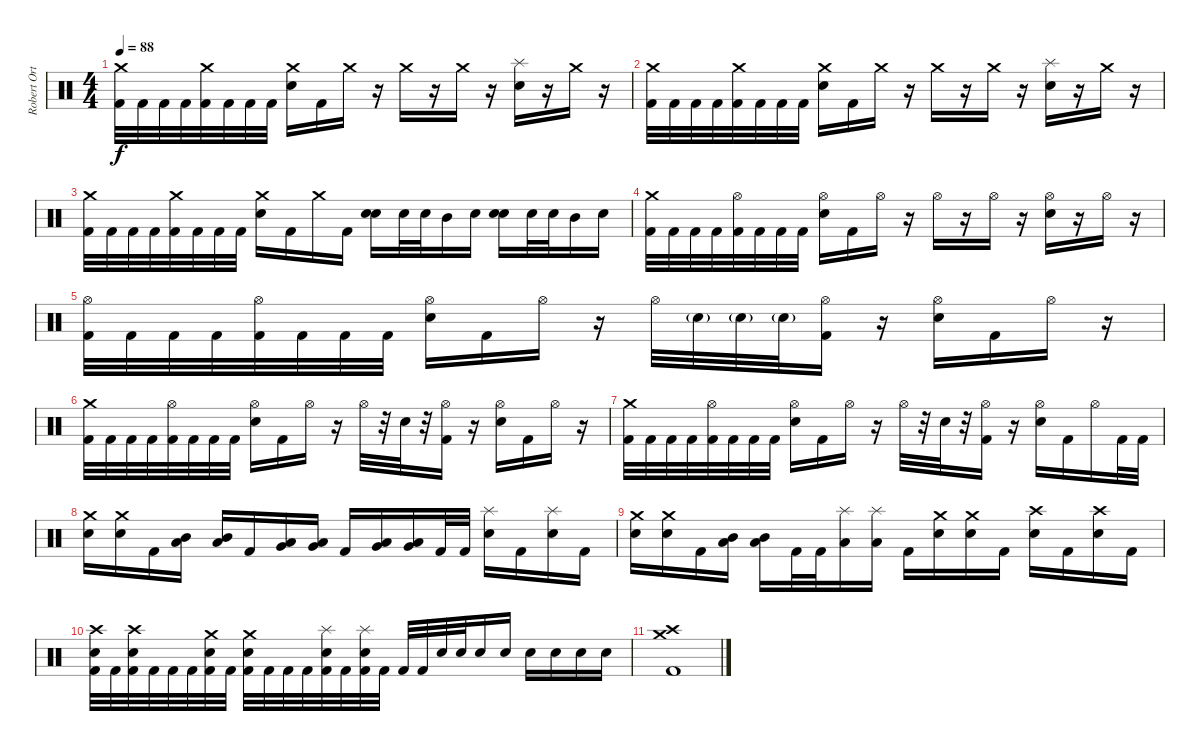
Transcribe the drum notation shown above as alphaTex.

\track ("Robert Ortiz" "Robert Ort") {instrument percussion}
\staff {score}
\articulation defaults
\ts (4 4)
\tempo 88
\clef neutral
\ks c
("Kick (hit) 2" "Crash medium (hit)").32{dy f} "Kick (hit) 2".32 "Kick (hit) 2".32 "Kick (hit) 2".32 ("Kick (hit) 2" "Crash medium (hit)").32 "Kick (hit) 2".32 "Kick (hit) 2".32 "Kick (hit) 2".32 ("Electric Snare (hit)" "Crash medium (hit)").16 "Kick (hit) 2".16 "Crash medium (hit)".16 r.16 "Crash medium (hit)".16 r.16 "Crash medium (hit)".16 r.16 ("Electric Snare (hit)" "Splash (hit)").16 r.16 "Crash medium (hit)".16 r.16 |
("Kick (hit) 2" "Crash medium (hit)").32 "Kick (hit) 2".32 "Kick (hit) 2".32 "Kick (hit) 2".32 ("Kick (hit) 2" "Crash medium (hit)").32 "Kick (hit) 2".32 "Kick (hit) 2".32 "Kick (hit) 2".32 ("Electric Snare (hit)" "Crash medium (hit)").16 "Kick (hit) 2".16 "Crash medium (hit)".16 r.16 "Crash medium (hit)".16 r.16 "Crash medium (hit)".16 r.16 ("Electric Snare (hit)" "Splash (hit)").16 r.16 "Crash medium (hit)".16 r.16 |
("Kick (hit) 2" "Crash medium (hit)").32 "Kick (hit) 2".32 "Kick (hit) 2".32 "Kick (hit) 2".32 ("Kick (hit) 2" "Crash medium (hit)").32 "Kick (hit) 2".32 "Kick (hit) 2".32 "Kick (hit) 2".32 ("Electric Snare (hit)" "Crash medium (hit)").16 "Kick (hit) 2".16 "Crash medium (hit)".16 "Kick (hit) 2".16 ("Electric Snare (hit)" "Electric Snare (hit)").16{bd 240} "Electric Snare (hit)".32 "Electric Snare (hit)".32 "Mid Tom (hit)".16 "Electric Snare (hit)".16 ("Electric Snare (hit)" "Electric Snare (hit)").16{bd 240} "Electric Snare (hit)".32 "Electric Snare (hit)".32 "Mid Tom (hit)".16 "Electric Snare (hit)".16 |
("Kick (hit) 2" "Crash medium (hit)").32 "Kick (hit) 2".32 "Kick (hit) 2".32 "Kick (hit) 2".32 ("Kick (hit) 2" "Hi-Hat (open)").32 "Kick (hit) 2".32 "Kick (hit) 2".32 "Kick (hit) 2".32 ("Electric Snare (hit)" "Hi-Hat (open)").16 "Kick (hit) 2".16 "Hi-Hat (open)".16 r.16 "Hi-Hat (open)".16 r.16 "Hi-Hat (open)".16 r.16 ("Electric Snare (hit)" "Hi-Hat (open)").16 r.16 "Hi-Hat (open)".16 r.16 |
("Kick (hit) 2" "Hi-Hat (open)").32 "Kick (hit) 2".32 "Kick (hit) 2".32 "Kick (hit) 2".32 ("Kick (hit) 2" "Hi-Hat (open)").32 "Kick (hit) 2".32 "Kick (hit) 2".32 "Kick (hit) 2".32 ("Electric Snare (hit)" "Hi-Hat (open)").16 "Kick (hit) 2".16 "Hi-Hat (open)".16 r.16 "Hi-Hat (open)".32 "Electric Snare (hit)"{g}.32 "Electric Snare (hit)"{g}.32 "Electric Snare (hit)"{g}.32 ("Kick (hit) 2" "Hi-Hat (open)").16 r.16 ("Electric Snare (hit)" "Hi-Hat (open)").16 "Kick (hit) 2".16 "Hi-Hat (open)".16 r.16 |
("Kick (hit) 2" "Crash medium (hit)").32 "Kick (hit) 2".32 "Kick (hit) 2".32 "Kick (hit) 2".32 ("Kick (hit) 2" "Hi-Hat (open)").32 "Kick (hit) 2".32 "Kick (hit) 2".32 "Kick (hit) 2".32 ("Electric Snare (hit)" "Hi-Hat (open)").16 "Kick (hit) 2".16 "Hi-Hat (open)".16 r.16 "Hi-Hat (open)".32 r.32 "Electric Snare (hit)".32 r.32 ("Kick (hit) 2" "Hi-Hat (open)").16 r.16 ("Electric Snare (hit)" "Hi-Hat (open)").16 "Kick (hit) 2".16 "Hi-Hat (open)".16 r.16 |
("Kick (hit) 2" "Crash medium (hit)").32 "Kick (hit) 2".32 "Kick (hit) 2".32 "Kick (hit) 2".32 ("Kick (hit) 2" "Hi-Hat (open)").32 "Kick (hit) 2".32 "Kick (hit) 2".32 "Kick (hit) 2".32 ("Electric Snare (hit)" "Hi-Hat (open)").16 "Kick (hit) 2".16 "Hi-Hat (open)".16 r.16 "Hi-Hat (open)".32 r.32 "Electric Snare (hit)".32 r.32 ("Kick (hit) 2" "Hi-Hat (open)").16 r.16 ("Electric Snare (hit)" "Hi-Hat (open)").16 "Kick (hit) 2".16 "Hi-Hat (open)".16 "Kick (hit) 2".32 "Kick (hit) 2".32 |
("Electric Snare (hit)" "Crash medium (hit)").16 ("Electric Snare (hit)" "Crash medium (hit)").16 "Kick (hit) 2".16 ("Mid Tom (hit)" "Low Tom (hit)").16 ("Mid Tom (hit)" "Low Tom (hit)").16 "Kick (hit) 2".16 ("Low Tom (hit)" "Very Low Tom (hit)").16 ("Low Tom (hit)" "Very Low Tom (hit)").16 "Kick (hit) 2".16 ("Very Low Tom (hit)" "Low Floor Tom (hit)").16 ("Very Low Tom (hit)" "Low Floor Tom (hit)").16 "Kick (hit) 2".32 "Kick (hit) 2".32 ("Electric Snare (hit)" "Splash (hit)").16 "Kick (hit) 2".16 ("Electric Snare (hit)" "Splash (hit)").16 "Kick (hit) 2".16 |
("Electric Snare (hit)" "Crash medium (hit)").16 ("Electric Snare (hit)" "Crash medium (hit)").16 "Kick (hit) 2".16 ("Mid Tom (hit)" "Low Tom (hit)").16 ("Mid Tom (hit)" "Low Tom (hit)").16 "Kick (hit) 2".32 "Kick (hit) 2".32 ("Low Tom (hit)" "Splash (hit)").16 ("Low Tom (hit)" "Splash (hit)").16 "Kick (hit) 2".16 ("Electric Snare (hit)" "Crash medium (hit)").16 ("Electric Snare (hit)" "Crash medium (hit)").16 "Kick (hit) 2".16 ("Electric Snare (hit)" "Crash high (hit)").16 "Kick (hit) 2".16 ("Electric Snare (hit)" "Crash high (hit)").16 "Kick (hit) 2".16 |
("Kick (hit) 2" "Electric Snare (hit)" "Crash high (hit)").32 "Kick (hit) 2".32 ("Kick (hit) 2" "Electric Snare (hit)" "Crash high (hit)").32 "Kick (hit) 2".32 "Kick (hit) 2".32 "Kick (hit) 2".32 ("Kick (hit) 2" "Electric Snare (hit)" "Crash medium (hit)").32 "Kick (hit) 2".32 ("Kick (hit) 2" "Electric Snare (hit)" "Crash medium (hit)").32 "Kick (hit) 2".32 "Kick (hit) 2".32 "Kick (hit) 2".32 ("Kick (hit) 2" "Electric Snare (hit)" "Splash (hit)").32 "Kick (hit) 2".32 ("Kick (hit) 2" "Electric Snare (hit)" "Splash (hit)").32 "Kick (hit) 2".32 "Kick (hit) 2".32 "Kick (hit) 2".32 "Electric Snare (hit)".32 "Electric Snare (hit)".32 "Electric Snare (hit)".16 "Electric Snare (hit)".16 "Electric Snare (hit)".16 "Electric Snare (hit)".16 "Electric Snare (hit)".16 "Electric Snare (hit)".16 |
("Kick (hit) 2" "Crash medium (hit)" "Crash high (hit)").1
